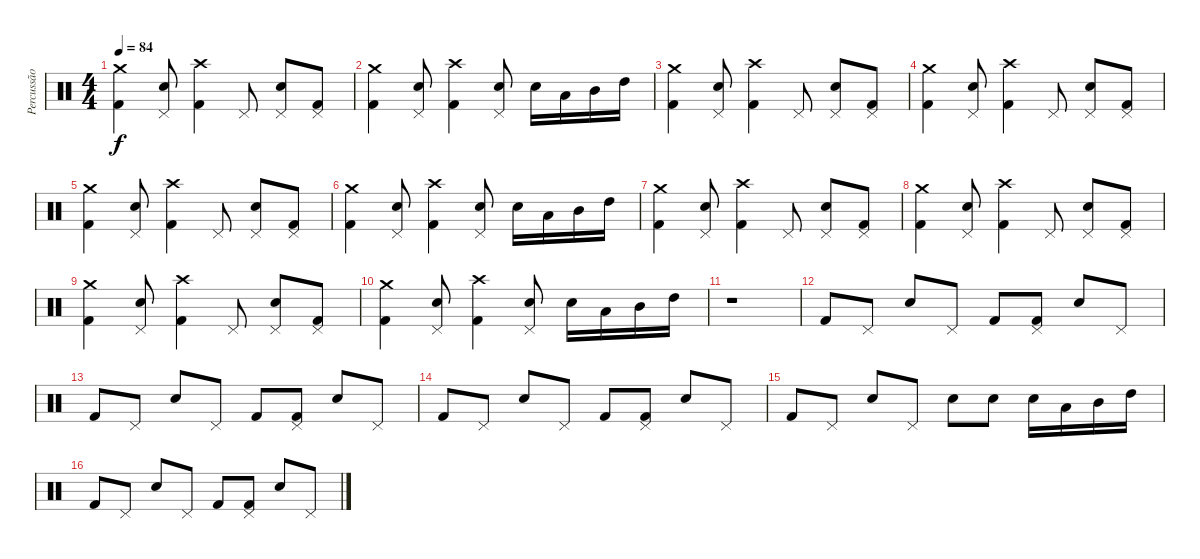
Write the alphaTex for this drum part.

\track ("Percussão" "Percussão") {instrument percussion}
\staff {score}
\articulation defaults
\ts (4 4)
\tempo 84
\clef neutral
\ks c
("Crash medium (hit)" "Kick (hit) 2").4{dy f} ("Pedal Hi-Hat (hit)" "Snare (hit) 2").8 ("Crash high (hit)" "Kick (hit) 2").4 "Pedal Hi-Hat (hit)".8 ("Pedal Hi-Hat (hit)" "Snare (hit) 2").8 ("Pedal Hi-Hat (hit)" "Kick (hit) 2").8 |
("Crash medium (hit)" "Kick (hit) 2").4 ("Pedal Hi-Hat (hit)" "Snare (hit) 2").8 ("Crash high (hit)" "Kick (hit) 2").4 ("Pedal Hi-Hat (hit)" "Snare (hit) 2").8 "Snare (hit) 2".16 "Low Tom (hit)".16 "Mid Tom (hit)".16 "High Tom (hit)".16 |
("Crash medium (hit)" "Kick (hit) 2").4 ("Pedal Hi-Hat (hit)" "Snare (hit) 2").8 ("Crash high (hit)" "Kick (hit) 2").4 "Pedal Hi-Hat (hit)".8 ("Pedal Hi-Hat (hit)" "Snare (hit) 2").8 ("Pedal Hi-Hat (hit)" "Kick (hit) 2").8 |
("Crash medium (hit)" "Kick (hit) 2").4 ("Pedal Hi-Hat (hit)" "Snare (hit) 2").8 ("Crash high (hit)" "Kick (hit) 2").4 "Pedal Hi-Hat (hit)".8 ("Pedal Hi-Hat (hit)" "Snare (hit) 2").8 ("Pedal Hi-Hat (hit)" "Kick (hit) 2").8 |
("Crash medium (hit)" "Kick (hit) 2").4 ("Pedal Hi-Hat (hit)" "Snare (hit) 2").8 ("Crash high (hit)" "Kick (hit) 2").4 "Pedal Hi-Hat (hit)".8 ("Pedal Hi-Hat (hit)" "Snare (hit) 2").8 ("Pedal Hi-Hat (hit)" "Kick (hit) 2").8 |
("Crash medium (hit)" "Kick (hit) 2").4 ("Pedal Hi-Hat (hit)" "Snare (hit) 2").8 ("Crash high (hit)" "Kick (hit) 2").4 ("Pedal Hi-Hat (hit)" "Snare (hit) 2").8 "Snare (hit) 2".16 "Low Tom (hit)".16 "Mid Tom (hit)".16 "High Tom (hit)".16 |
("Crash medium (hit)" "Kick (hit) 2").4 ("Pedal Hi-Hat (hit)" "Snare (hit) 2").8 ("Crash high (hit)" "Kick (hit) 2").4 "Pedal Hi-Hat (hit)".8 ("Pedal Hi-Hat (hit)" "Snare (hit) 2").8 ("Pedal Hi-Hat (hit)" "Kick (hit) 2").8 |
("Crash medium (hit)" "Kick (hit) 2").4 ("Pedal Hi-Hat (hit)" "Snare (hit) 2").8 ("Crash high (hit)" "Kick (hit) 2").4 "Pedal Hi-Hat (hit)".8 ("Pedal Hi-Hat (hit)" "Snare (hit) 2").8 ("Pedal Hi-Hat (hit)" "Kick (hit) 2").8 |
("Crash medium (hit)" "Kick (hit) 2").4 ("Pedal Hi-Hat (hit)" "Snare (hit) 2").8 ("Crash high (hit)" "Kick (hit) 2").4 "Pedal Hi-Hat (hit)".8 ("Pedal Hi-Hat (hit)" "Snare (hit) 2").8 ("Pedal Hi-Hat (hit)" "Kick (hit) 2").8 |
("Crash medium (hit)" "Kick (hit) 2").4 ("Pedal Hi-Hat (hit)" "Snare (hit) 2").8 ("Crash high (hit)" "Kick (hit) 2").4 ("Pedal Hi-Hat (hit)" "Snare (hit) 2").8 "Snare (hit) 2".16 "Low Tom (hit)".16 "Mid Tom (hit)".16 "High Tom (hit)".16 |
r.1 |
"Kick (hit) 2".8 "Pedal Hi-Hat (hit)".8 "Snare (hit) 2".8 "Pedal Hi-Hat (hit)".8 "Kick (hit) 2".8 ("Pedal Hi-Hat (hit)" "Kick (hit) 2").8 "Snare (hit) 2".8 "Pedal Hi-Hat (hit)".8 |
"Kick (hit) 2".8 "Pedal Hi-Hat (hit)".8 "Snare (hit) 2".8 "Pedal Hi-Hat (hit)".8 "Kick (hit) 2".8 ("Pedal Hi-Hat (hit)" "Kick (hit) 2").8 "Snare (hit) 2".8 "Pedal Hi-Hat (hit)".8 |
"Kick (hit) 2".8 "Pedal Hi-Hat (hit)".8 "Snare (hit) 2".8 "Pedal Hi-Hat (hit)".8 "Kick (hit) 2".8 ("Pedal Hi-Hat (hit)" "Kick (hit) 2").8 "Snare (hit) 2".8 "Pedal Hi-Hat (hit)".8 |
"Kick (hit) 2".8 "Pedal Hi-Hat (hit)".8 "Snare (hit) 2".8 "Pedal Hi-Hat (hit)".8 "Electric Snare (hit)".8 "Electric Snare (hit)".8 "Electric Snare (hit)".16 "Low Tom (hit)".16 "Mid Tom (hit)".16 "High Tom (hit)".16 |
"Kick (hit) 2".8 "Pedal Hi-Hat (hit)".8 "Snare (hit) 2".8 "Pedal Hi-Hat (hit)".8 "Kick (hit) 2".8 ("Pedal Hi-Hat (hit)" "Kick (hit) 2").8 "Snare (hit) 2".8 "Pedal Hi-Hat (hit)".8
